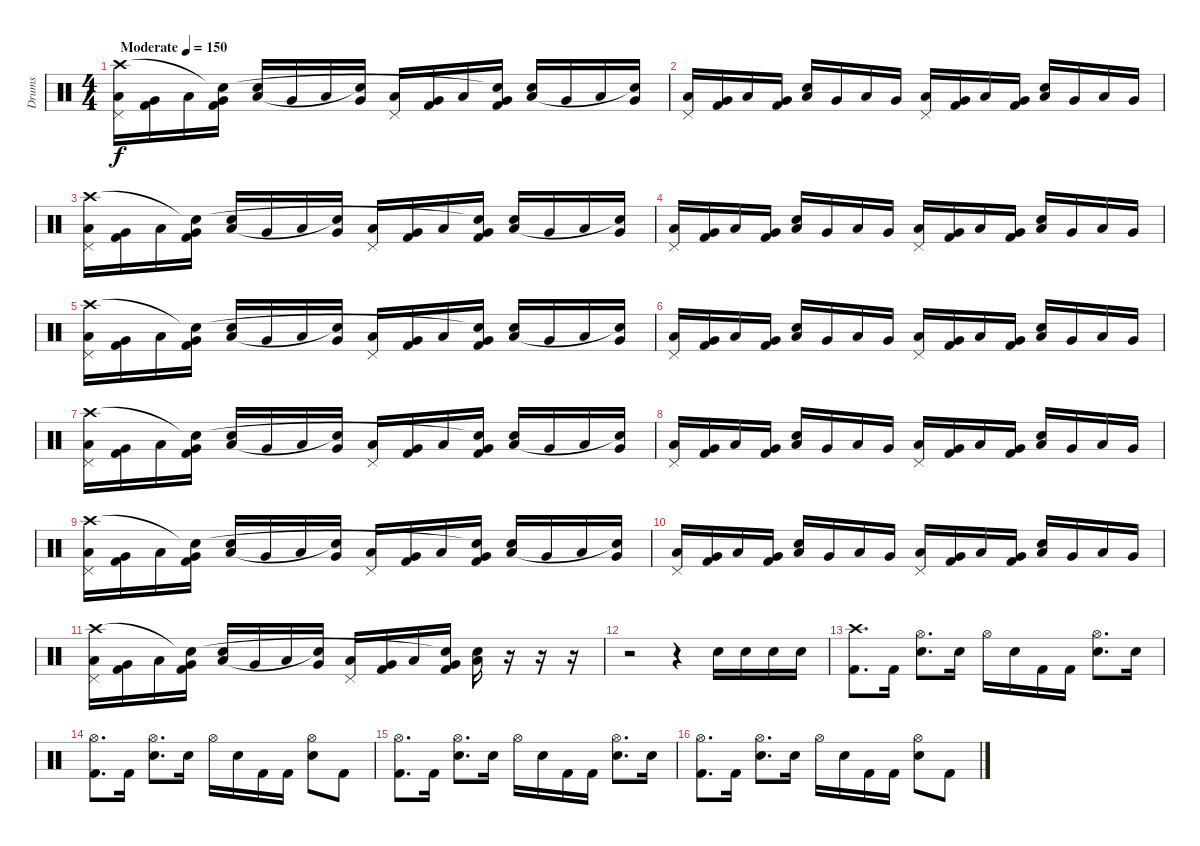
\track ("Drums" "Drums") {instrument percussion}
\staff {score}
\articulation defaults
\ts (4 4)
\tempo (150 "Moderate")
\clef neutral
\ks c
("Low Tom (hit)" "Pedal Hi-Hat (hit)" "Crash high (hit)").16{dy f} ("Very Low Tom (hit)" "Kick (hit) 2").16 "Low Tom (hit)".16 ("Very Low Tom (hit)" "Kick (hit) 2" "Snare (hit)"{t}).16 ("Electric Snare (hit)" "Low Tom (hit)").16 "Very Low Tom (hit)".16 "Low Tom (hit)".16 ("Very Low Tom (hit)" "Snare (hit)"{t}).16 ("Low Tom (hit)" "Pedal Hi-Hat (hit)").16 ("Very Low Tom (hit)" "Kick (hit) 2").16 "Low Tom (hit)".16 ("Very Low Tom (hit)" "Kick (hit) 2" "Snare (hit)"{t}).16 ("Electric Snare (hit)" "Low Tom (hit)").16 "Very Low Tom (hit)".16 "Low Tom (hit)".16 ("Very Low Tom (hit)" "Snare (hit)"{t}).16 |
("Low Tom (hit)" "Pedal Hi-Hat (hit)").16 ("Very Low Tom (hit)" "Kick (hit) 2").16 "Low Tom (hit)".16 ("Very Low Tom (hit)" "Kick (hit) 2").16 ("Electric Snare (hit)" "Low Tom (hit)").16 "Very Low Tom (hit)".16 "Low Tom (hit)".16 "Very Low Tom (hit)".16 ("Low Tom (hit)" "Pedal Hi-Hat (hit)").16 ("Very Low Tom (hit)" "Kick (hit) 2").16 "Low Tom (hit)".16 ("Very Low Tom (hit)" "Kick (hit) 2").16 ("Electric Snare (hit)" "Low Tom (hit)").16 "Very Low Tom (hit)".16 "Low Tom (hit)".16 "Very Low Tom (hit)".16 |
("Low Tom (hit)" "Pedal Hi-Hat (hit)" "Crash high (hit)").16 ("Very Low Tom (hit)" "Kick (hit) 2").16 "Low Tom (hit)".16 ("Very Low Tom (hit)" "Kick (hit) 2" "Snare (hit)"{t}).16 ("Electric Snare (hit)" "Low Tom (hit)").16 "Very Low Tom (hit)".16 "Low Tom (hit)".16 ("Very Low Tom (hit)" "Snare (hit)"{t}).16 ("Low Tom (hit)" "Pedal Hi-Hat (hit)").16 ("Very Low Tom (hit)" "Kick (hit) 2").16 "Low Tom (hit)".16 ("Very Low Tom (hit)" "Kick (hit) 2" "Snare (hit)"{t}).16 ("Electric Snare (hit)" "Low Tom (hit)").16 "Very Low Tom (hit)".16 "Low Tom (hit)".16 ("Very Low Tom (hit)" "Snare (hit)"{t}).16 |
("Low Tom (hit)" "Pedal Hi-Hat (hit)").16 ("Very Low Tom (hit)" "Kick (hit) 2").16 "Low Tom (hit)".16 ("Very Low Tom (hit)" "Kick (hit) 2").16 ("Electric Snare (hit)" "Low Tom (hit)").16 "Very Low Tom (hit)".16 "Low Tom (hit)".16 "Very Low Tom (hit)".16 ("Low Tom (hit)" "Pedal Hi-Hat (hit)").16 ("Very Low Tom (hit)" "Kick (hit) 2").16 "Low Tom (hit)".16 ("Very Low Tom (hit)" "Kick (hit) 2").16 ("Electric Snare (hit)" "Low Tom (hit)").16 "Very Low Tom (hit)".16 "Low Tom (hit)".16 "Very Low Tom (hit)".16 |
("Low Tom (hit)" "Pedal Hi-Hat (hit)" "Crash high (hit)").16 ("Very Low Tom (hit)" "Kick (hit) 2").16 "Low Tom (hit)".16 ("Very Low Tom (hit)" "Kick (hit) 2" "Snare (hit)"{t}).16 ("Electric Snare (hit)" "Low Tom (hit)").16 "Very Low Tom (hit)".16 "Low Tom (hit)".16 ("Very Low Tom (hit)" "Snare (hit)"{t}).16 ("Low Tom (hit)" "Pedal Hi-Hat (hit)").16 ("Very Low Tom (hit)" "Kick (hit) 2").16 "Low Tom (hit)".16 ("Very Low Tom (hit)" "Kick (hit) 2" "Snare (hit)"{t}).16 ("Electric Snare (hit)" "Low Tom (hit)").16 "Very Low Tom (hit)".16 "Low Tom (hit)".16 ("Very Low Tom (hit)" "Snare (hit)"{t}).16 |
("Low Tom (hit)" "Pedal Hi-Hat (hit)").16 ("Very Low Tom (hit)" "Kick (hit) 2").16 "Low Tom (hit)".16 ("Very Low Tom (hit)" "Kick (hit) 2").16 ("Electric Snare (hit)" "Low Tom (hit)").16 "Very Low Tom (hit)".16 "Low Tom (hit)".16 "Very Low Tom (hit)".16 ("Low Tom (hit)" "Pedal Hi-Hat (hit)").16 ("Very Low Tom (hit)" "Kick (hit) 2").16 "Low Tom (hit)".16 ("Very Low Tom (hit)" "Kick (hit) 2").16 ("Electric Snare (hit)" "Low Tom (hit)").16 "Very Low Tom (hit)".16 "Low Tom (hit)".16 "Very Low Tom (hit)".16 |
("Low Tom (hit)" "Pedal Hi-Hat (hit)" "Crash high (hit)").16 ("Very Low Tom (hit)" "Kick (hit) 2").16 "Low Tom (hit)".16 ("Very Low Tom (hit)" "Kick (hit) 2" "Snare (hit)"{t}).16 ("Electric Snare (hit)" "Low Tom (hit)").16 "Very Low Tom (hit)".16 "Low Tom (hit)".16 ("Very Low Tom (hit)" "Snare (hit)"{t}).16 ("Low Tom (hit)" "Pedal Hi-Hat (hit)").16 ("Very Low Tom (hit)" "Kick (hit) 2").16 "Low Tom (hit)".16 ("Very Low Tom (hit)" "Kick (hit) 2" "Snare (hit)"{t}).16 ("Electric Snare (hit)" "Low Tom (hit)").16 "Very Low Tom (hit)".16 "Low Tom (hit)".16 ("Very Low Tom (hit)" "Snare (hit)"{t}).16 |
("Low Tom (hit)" "Pedal Hi-Hat (hit)").16 ("Very Low Tom (hit)" "Kick (hit) 2").16 "Low Tom (hit)".16 ("Very Low Tom (hit)" "Kick (hit) 2").16 ("Electric Snare (hit)" "Low Tom (hit)").16 "Very Low Tom (hit)".16 "Low Tom (hit)".16 "Very Low Tom (hit)".16 ("Low Tom (hit)" "Pedal Hi-Hat (hit)").16 ("Very Low Tom (hit)" "Kick (hit) 2").16 "Low Tom (hit)".16 ("Very Low Tom (hit)" "Kick (hit) 2").16 ("Electric Snare (hit)" "Low Tom (hit)").16 "Very Low Tom (hit)".16 "Low Tom (hit)".16 "Very Low Tom (hit)".16 |
("Low Tom (hit)" "Pedal Hi-Hat (hit)" "Crash high (hit)").16 ("Very Low Tom (hit)" "Kick (hit) 2").16 "Low Tom (hit)".16 ("Very Low Tom (hit)" "Kick (hit) 2" "Snare (hit)"{t}).16 ("Electric Snare (hit)" "Low Tom (hit)").16 "Very Low Tom (hit)".16 "Low Tom (hit)".16 ("Very Low Tom (hit)" "Snare (hit)"{t}).16 ("Low Tom (hit)" "Pedal Hi-Hat (hit)").16 ("Very Low Tom (hit)" "Kick (hit) 2").16 "Low Tom (hit)".16 ("Very Low Tom (hit)" "Kick (hit) 2" "Snare (hit)"{t}).16 ("Electric Snare (hit)" "Low Tom (hit)").16 "Very Low Tom (hit)".16 "Low Tom (hit)".16 ("Very Low Tom (hit)" "Snare (hit)"{t}).16 |
("Low Tom (hit)" "Pedal Hi-Hat (hit)").16 ("Very Low Tom (hit)" "Kick (hit) 2").16 "Low Tom (hit)".16 ("Very Low Tom (hit)" "Kick (hit) 2").16 ("Electric Snare (hit)" "Low Tom (hit)").16 "Very Low Tom (hit)".16 "Low Tom (hit)".16 "Very Low Tom (hit)".16 ("Low Tom (hit)" "Pedal Hi-Hat (hit)").16 ("Very Low Tom (hit)" "Kick (hit) 2").16 "Low Tom (hit)".16 ("Very Low Tom (hit)" "Kick (hit) 2").16 ("Electric Snare (hit)" "Low Tom (hit)").16 "Very Low Tom (hit)".16 "Low Tom (hit)".16 "Very Low Tom (hit)".16 |
("Low Tom (hit)" "Pedal Hi-Hat (hit)" "Crash high (hit)").16 ("Very Low Tom (hit)" "Kick (hit) 2").16 "Low Tom (hit)".16 ("Very Low Tom (hit)" "Kick (hit) 2" "Snare (hit)"{t}).16 ("Electric Snare (hit)" "Low Tom (hit)").16 "Very Low Tom (hit)".16 "Low Tom (hit)".16 ("Very Low Tom (hit)" "Snare (hit)"{t}).16 ("Low Tom (hit)" "Pedal Hi-Hat (hit)").16 ("Very Low Tom (hit)" "Kick (hit) 2").16 "Low Tom (hit)".16 ("Very Low Tom (hit)" "Kick (hit) 2" "Snare (hit)"{t}).16 ("Electric Snare (hit)" "Low Tom (hit)").16 r.16 r.16 r.16 |
r.2 r.4 "Electric Snare (hit)".16 "Electric Snare (hit)".16 "Electric Snare (hit)".16 "Electric Snare (hit)".16 |
("Kick (hit) 2" "Crash high (hit)").8{d} "Kick (hit) 2".16 ("Electric Snare (hit)" "Hi-Hat (open)").8{d} "Electric Snare (hit)".16 "Hi-Hat (open)".16 "Electric Snare (hit)".16 "Kick (hit) 2".16 "Kick (hit) 2".16 ("Electric Snare (hit)" "Hi-Hat (open)").8{d} "Electric Snare (hit)".16 |
("Kick (hit) 2" "Hi-Hat (open)").8{d} "Kick (hit) 2".16 ("Electric Snare (hit)" "Hi-Hat (open)").8{d} "Electric Snare (hit)".16 "Hi-Hat (open)".16 "Electric Snare (hit)".16 "Kick (hit) 2".16 "Kick (hit) 2".16 ("Electric Snare (hit)" "Hi-Hat (open)").8 "Kick (hit) 2".8 |
("Kick (hit) 2" "Hi-Hat (open)").8{d} "Kick (hit) 2".16 ("Electric Snare (hit)" "Hi-Hat (open)").8{d} "Electric Snare (hit)".16 "Hi-Hat (open)".16 "Electric Snare (hit)".16 "Kick (hit) 2".16 "Kick (hit) 2".16 ("Electric Snare (hit)" "Hi-Hat (open)").8{d} "Electric Snare (hit)".16 |
("Kick (hit) 2" "Hi-Hat (open)").8{d} "Kick (hit) 2".16 ("Electric Snare (hit)" "Hi-Hat (open)").8{d} "Electric Snare (hit)".16 "Hi-Hat (open)".16 "Electric Snare (hit)".16 "Kick (hit) 2".16 "Kick (hit) 2".16 ("Electric Snare (hit)" "Hi-Hat (open)").8 "Kick (hit) 2".8
